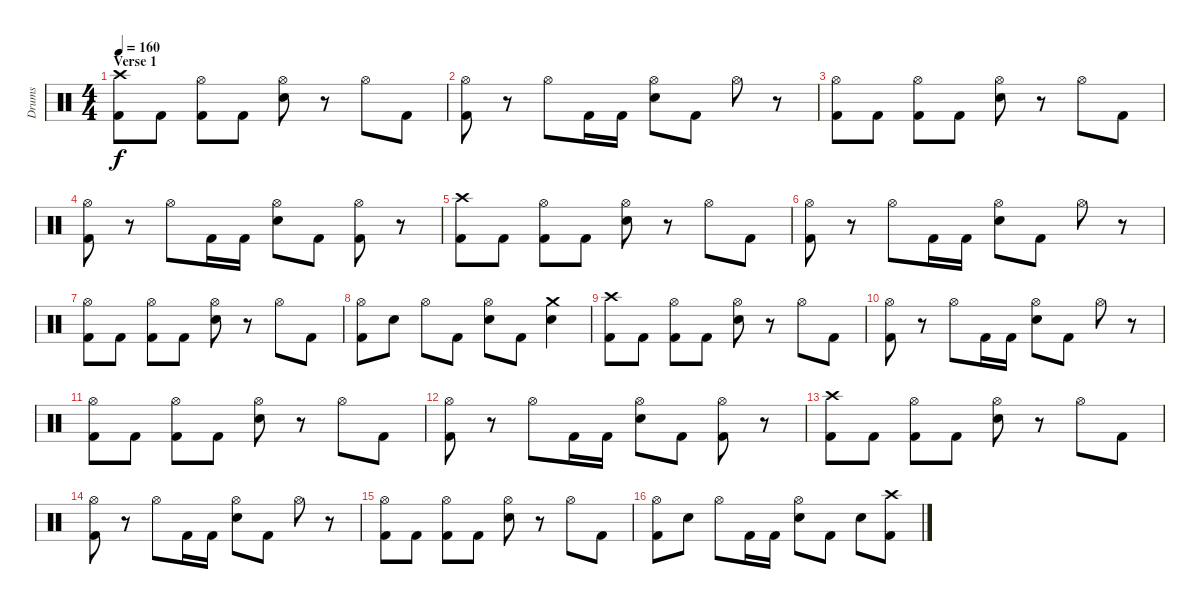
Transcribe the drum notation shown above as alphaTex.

\track ("Drums" "Drums") {instrument percussion}
\staff {score}
\articulation defaults
\ts (4 4)
\section ("" "Verse 1")
\tempo 160
\clef neutral
\ks c
("Crash high (hit)" "Kick (hit) 2").8{dy f} "Kick (hit) 2".8 ("Hi-Hat (open)" "Kick (hit) 2").8 "Kick (hit) 2".8 ("Hi-Hat (open)" "Snare (hit) 2").8 r.8 "Hi-Hat (open)".8 "Kick (hit) 2".8 |
("Hi-Hat (open)" "Kick (hit) 2").8 r.8 "Hi-Hat (open)".8 "Kick (hit) 2".16 "Kick (hit) 2".16 ("Hi-Hat (open)" "Snare (hit) 2").8 "Kick (hit) 2".8 "Hi-Hat (open)".8 r.8 |
("Hi-Hat (open)" "Kick (hit) 2").8 "Kick (hit) 2".8 ("Hi-Hat (open)" "Kick (hit) 2").8 "Kick (hit) 2".8 ("Hi-Hat (open)" "Snare (hit) 2").8 r.8 "Hi-Hat (open)".8 "Kick (hit) 2".8 |
("Hi-Hat (open)" "Kick (hit) 2").8 r.8 "Hi-Hat (open)".8 "Kick (hit) 2".16 "Kick (hit) 2".16 ("Hi-Hat (open)" "Snare (hit) 2").8 "Kick (hit) 2".8 ("Hi-Hat (open)" "Kick (hit) 2").8 r.8 |
("Crash high (hit)" "Kick (hit) 2").8 "Kick (hit) 2".8 ("Hi-Hat (open)" "Kick (hit) 2").8 "Kick (hit) 2".8 ("Hi-Hat (open)" "Snare (hit) 2").8 r.8 "Hi-Hat (open)".8 "Kick (hit) 2".8 |
("Hi-Hat (open)" "Kick (hit) 2").8 r.8 "Hi-Hat (open)".8 "Kick (hit) 2".16 "Kick (hit) 2".16 ("Hi-Hat (open)" "Snare (hit) 2").8 "Kick (hit) 2".8 "Hi-Hat (open)".8 r.8 |
("Hi-Hat (open)" "Kick (hit) 2").8 "Kick (hit) 2".8 ("Hi-Hat (open)" "Kick (hit) 2").8 "Kick (hit) 2".8 ("Hi-Hat (open)" "Snare (hit) 2").8 r.8 "Hi-Hat (open)".8 "Kick (hit) 2".8 |
("Hi-Hat (open)" "Kick (hit) 2").8 "Snare (hit) 2".8 "Hi-Hat (open)".8 "Kick (hit) 2".8 ("Hi-Hat (open)" "Snare (hit) 2").8 "Kick (hit) 2".8 ("Crash medium (hit)" "Snare (hit) 2").4 |
("Crash high (hit)" "Kick (hit) 2").8 "Kick (hit) 2".8 ("Hi-Hat (open)" "Kick (hit) 2").8 "Kick (hit) 2".8 ("Hi-Hat (open)" "Snare (hit) 2").8 r.8 "Hi-Hat (open)".8 "Kick (hit) 2".8 |
("Hi-Hat (open)" "Kick (hit) 2").8 r.8 "Hi-Hat (open)".8 "Kick (hit) 2".16 "Kick (hit) 2".16 ("Hi-Hat (open)" "Snare (hit) 2").8 "Kick (hit) 2".8 "Hi-Hat (open)".8 r.8 |
("Hi-Hat (open)" "Kick (hit) 2").8 "Kick (hit) 2".8 ("Hi-Hat (open)" "Kick (hit) 2").8 "Kick (hit) 2".8 ("Hi-Hat (open)" "Snare (hit) 2").8 r.8 "Hi-Hat (open)".8 "Kick (hit) 2".8 |
("Hi-Hat (open)" "Kick (hit) 2").8 r.8 "Hi-Hat (open)".8 "Kick (hit) 2".16 "Kick (hit) 2".16 ("Hi-Hat (open)" "Snare (hit) 2").8 "Kick (hit) 2".8 ("Hi-Hat (open)" "Kick (hit) 2").8 r.8 |
("Crash high (hit)" "Kick (hit) 2").8 "Kick (hit) 2".8 ("Hi-Hat (open)" "Kick (hit) 2").8 "Kick (hit) 2".8 ("Hi-Hat (open)" "Snare (hit) 2").8 r.8 "Hi-Hat (open)".8 "Kick (hit) 2".8 |
("Hi-Hat (open)" "Kick (hit) 2").8 r.8 "Hi-Hat (open)".8 "Kick (hit) 2".16 "Kick (hit) 2".16 ("Hi-Hat (open)" "Snare (hit) 2").8 "Kick (hit) 2".8 "Hi-Hat (open)".8 r.8 |
("Hi-Hat (open)" "Kick (hit) 2").8 "Kick (hit) 2".8 ("Hi-Hat (open)" "Kick (hit) 2").8 "Kick (hit) 2".8 ("Hi-Hat (open)" "Snare (hit) 2").8 r.8 "Hi-Hat (open)".8 "Kick (hit) 2".8 |
("Hi-Hat (open)" "Kick (hit) 2").8 "Snare (hit) 2".8 "Hi-Hat (open)".8 "Kick (hit) 2".16 "Kick (hit) 2".16 ("Hi-Hat (open)" "Snare (hit) 2").8 "Kick (hit) 2".8 "Snare (hit) 2".8 ("Crash high (hit)" "Kick (hit) 2").8
